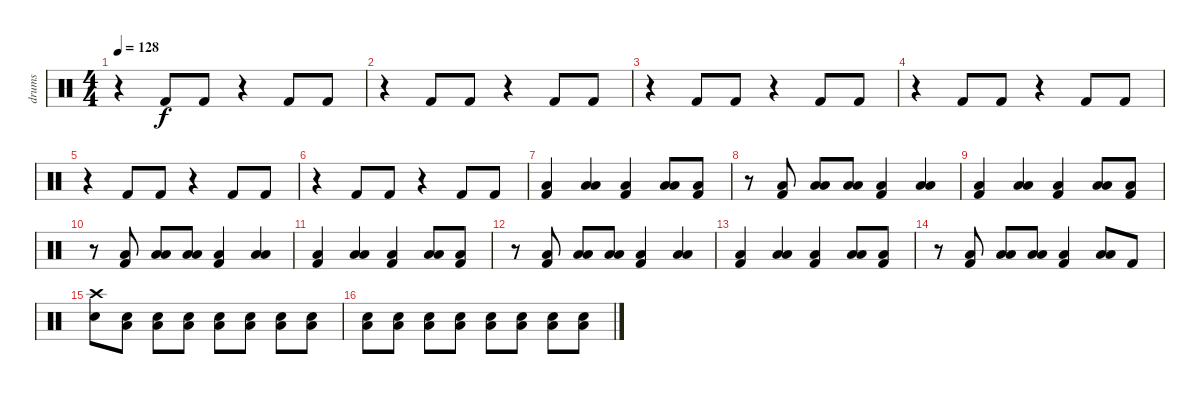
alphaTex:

\track ("drums" "drums") {instrument percussion}
\staff {score}
\articulation defaults
\ts (4 4)
\tempo 128
\clef neutral
\ks c
r.4{dy f} "Kick (hit) 2".8 "Kick (hit) 2".8 r.4 "Kick (hit) 2".8 "Kick (hit) 2".8 |
r.4 "Kick (hit) 2".8 "Kick (hit) 2".8 r.4 "Kick (hit) 2".8 "Kick (hit) 2".8 |
r.4 "Kick (hit) 2".8 "Kick (hit) 2".8 r.4 "Kick (hit) 2".8 "Kick (hit) 2".8 |
r.4 "Kick (hit) 2".8 "Kick (hit) 2".8 r.4 "Kick (hit) 2".8 "Kick (hit) 2".8 |
r.4 "Kick (hit) 2".8 "Kick (hit) 2".8 r.4 "Kick (hit) 2".8 "Kick (hit) 2".8 |
r.4 "Kick (hit) 2".8 "Kick (hit) 2".8 r.4 "Kick (hit) 2".8 "Kick (hit) 2".8 |
("Low Floor Tom (hit)" "Kick (hit) 2").4 ("Low Tom (hit)" "Low Floor Tom (hit)").4 ("Low Floor Tom (hit)" "Kick (hit) 2").4 ("Low Tom (hit)" "Low Floor Tom (hit)").8 ("Low Floor Tom (hit)" "Kick (hit) 2").8 |
r.8 ("Low Floor Tom (hit)" "Kick (hit) 2").8 ("Low Tom (hit)" "Low Floor Tom (hit)").8 ("Low Tom (hit)" "Low Floor Tom (hit)").8 ("Low Floor Tom (hit)" "Kick (hit) 2").4 ("Low Tom (hit)" "Low Floor Tom (hit)").4 |
("Low Floor Tom (hit)" "Kick (hit) 2").4 ("Low Tom (hit)" "Low Floor Tom (hit)").4 ("Low Floor Tom (hit)" "Kick (hit) 2").4 ("Low Tom (hit)" "Low Floor Tom (hit)").8 ("Low Floor Tom (hit)" "Kick (hit) 2").8 |
r.8 ("Low Floor Tom (hit)" "Kick (hit) 2").8 ("Low Tom (hit)" "Low Floor Tom (hit)").8 ("Low Tom (hit)" "Low Floor Tom (hit)").8 ("Low Floor Tom (hit)" "Kick (hit) 2").4 ("Low Tom (hit)" "Low Floor Tom (hit)").4 |
("Low Floor Tom (hit)" "Kick (hit) 2").4 ("Low Tom (hit)" "Low Floor Tom (hit)").4 ("Low Floor Tom (hit)" "Kick (hit) 2").4 ("Low Tom (hit)" "Low Floor Tom (hit)").8 ("Low Floor Tom (hit)" "Kick (hit) 2").8 |
r.8 ("Low Floor Tom (hit)" "Kick (hit) 2").8 ("Low Tom (hit)" "Low Floor Tom (hit)").8 ("Low Tom (hit)" "Low Floor Tom (hit)").8 ("Low Floor Tom (hit)" "Kick (hit) 2").4 ("Low Tom (hit)" "Low Floor Tom (hit)").4 |
("Low Floor Tom (hit)" "Kick (hit) 2").4 ("Low Tom (hit)" "Low Floor Tom (hit)").4 ("Low Floor Tom (hit)" "Kick (hit) 2").4 ("Low Tom (hit)" "Low Floor Tom (hit)").8 ("Low Floor Tom (hit)" "Kick (hit) 2").8 |
r.8 ("Low Floor Tom (hit)" "Kick (hit) 2").8 ("Low Tom (hit)" "Low Floor Tom (hit)").8 ("Low Tom (hit)" "Low Floor Tom (hit)").8 ("Low Floor Tom (hit)" "Kick (hit) 2").4 ("Low Tom (hit)" "Low Floor Tom (hit)").8 "Kick (hit) 2".8 |
("Crash high (hit)" "Electric Snare (hit)").8 ("Electric Snare (hit)" "Low Floor Tom (hit)").8 ("Electric Snare (hit)" "Low Floor Tom (hit)").8 ("Electric Snare (hit)" "Low Floor Tom (hit)").8 ("Electric Snare (hit)" "Low Floor Tom (hit)").8 ("Electric Snare (hit)" "Low Floor Tom (hit)").8 ("Electric Snare (hit)" "Low Floor Tom (hit)").8 ("Electric Snare (hit)" "Low Floor Tom (hit)").8 |
("Electric Snare (hit)" "Low Floor Tom (hit)").8 ("Electric Snare (hit)" "Low Floor Tom (hit)").8 ("Electric Snare (hit)" "Low Floor Tom (hit)").8 ("Electric Snare (hit)" "Low Floor Tom (hit)").8 ("Electric Snare (hit)" "Low Floor Tom (hit)").8 ("Electric Snare (hit)" "Low Floor Tom (hit)").8 ("Electric Snare (hit)" "Low Floor Tom (hit)").8 ("Electric Snare (hit)" "Low Floor Tom (hit)").8
